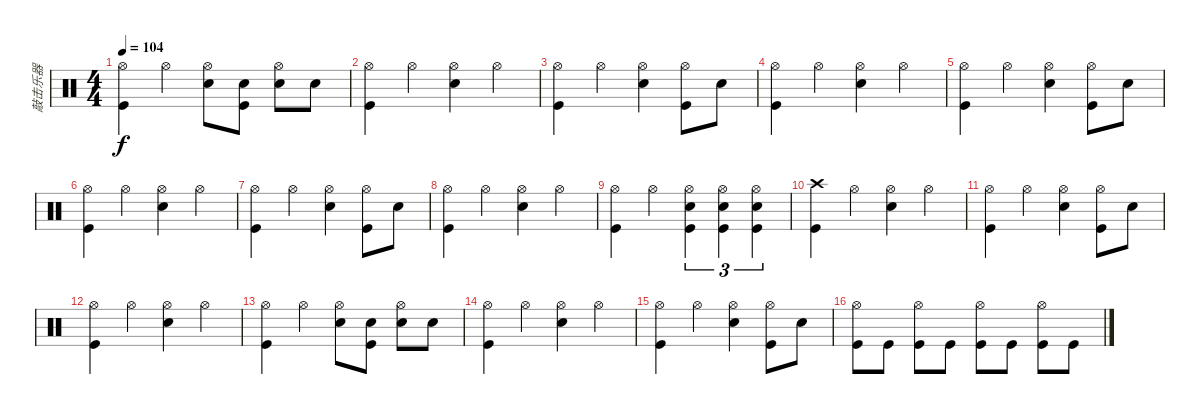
\track ("敲击乐器" "敲击乐器") {instrument percussion}
\staff {score}
\articulation defaults
\ts (4 4)
\tempo 104
\clef neutral
\ks c
("Hi-Hat (open)" "Kick (hit)").4{dy f} "Hi-Hat (open)".4 ("Hi-Hat (open)" "Snare (hit) 2").8 ("Snare (hit) 2" "Kick (hit)").8 ("Hi-Hat (open)" "Snare (hit) 2").8 "Snare (hit) 2".8 |
("Hi-Hat (open)" "Kick (hit)").4 "Hi-Hat (open)".4 ("Hi-Hat (open)" "Snare (hit) 2").4 "Hi-Hat (open)".4 |
("Hi-Hat (open)" "Kick (hit)").4 "Hi-Hat (open)".4 ("Hi-Hat (open)" "Snare (hit) 2").4 ("Hi-Hat (open)" "Kick (hit)").8 "Electric Snare (hit)".8 |
("Hi-Hat (open)" "Kick (hit)").4 "Hi-Hat (open)".4 ("Hi-Hat (open)" "Snare (hit) 2").4 "Hi-Hat (open)".4 |
("Hi-Hat (open)" "Kick (hit)").4 "Hi-Hat (open)".4 ("Hi-Hat (open)" "Snare (hit) 2").4 ("Hi-Hat (open)" "Kick (hit)").8 "Electric Snare (hit)".8 |
("Hi-Hat (open)" "Kick (hit)").4 "Hi-Hat (open)".4 ("Hi-Hat (open)" "Snare (hit) 2").4 "Hi-Hat (open)".4 |
("Hi-Hat (open)" "Kick (hit)").4 "Hi-Hat (open)".4 ("Hi-Hat (open)" "Snare (hit) 2").4 ("Hi-Hat (open)" "Kick (hit)").8 "Electric Snare (hit)".8 |
("Hi-Hat (open)" "Kick (hit)").4 "Hi-Hat (open)".4 ("Hi-Hat (open)" "Snare (hit) 2").4 "Hi-Hat (open)".4 |
("Hi-Hat (open)" "Kick (hit)").4 "Hi-Hat (open)".4 ("Hi-Hat (open)" "Snare (hit) 2" "Kick (hit)").4{tu (3 2)} ("Hi-Hat (open)" "Snare (hit) 2" "Kick (hit)").4{tu (3 2)} ("Hi-Hat (open)" "Snare (hit) 2" "Kick (hit)").4{tu (3 2)} |
("Crash high (hit)" "Kick (hit)").4 "Hi-Hat (open)".4 ("Hi-Hat (open)" "Snare (hit) 2").4 "Hi-Hat (open)".4 |
("Hi-Hat (open)" "Kick (hit)").4 "Hi-Hat (open)".4 ("Hi-Hat (open)" "Snare (hit) 2").4 ("Hi-Hat (open)" "Kick (hit)").8 "Electric Snare (hit)".8 |
("Hi-Hat (open)" "Kick (hit)").4 "Hi-Hat (open)".4 ("Hi-Hat (open)" "Snare (hit) 2").4 "Hi-Hat (open)".4 |
("Hi-Hat (open)" "Kick (hit)").4 "Hi-Hat (open)".4 ("Hi-Hat (open)" "Snare (hit) 2").8 ("Snare (hit) 2" "Kick (hit)").8 ("Hi-Hat (open)" "Snare (hit) 2").8 "Snare (hit) 2".8 |
("Hi-Hat (open)" "Kick (hit)").4 "Hi-Hat (open)".4 ("Hi-Hat (open)" "Snare (hit) 2").4 "Hi-Hat (open)".4 |
("Hi-Hat (open)" "Kick (hit)").4 "Hi-Hat (open)".4 ("Hi-Hat (open)" "Snare (hit) 2").4 ("Hi-Hat (open)" "Kick (hit)").8 "Electric Snare (hit)".8 |
("Hi-Hat (open)" "Kick (hit)").8 "Kick (hit)".8 ("Hi-Hat (open)" "Kick (hit)").8 "Kick (hit)".8 ("Hi-Hat (open)" "Kick (hit)").8 "Kick (hit)".8 ("Hi-Hat (open)" "Kick (hit)").8 "Kick (hit)".8
